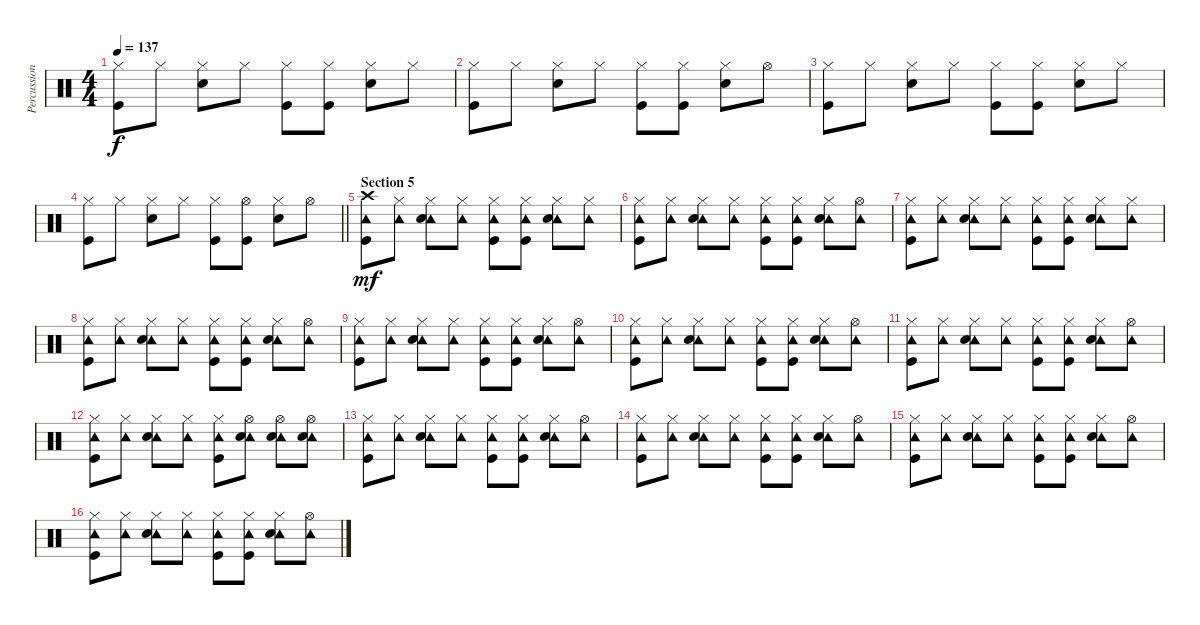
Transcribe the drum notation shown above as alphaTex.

\track ("Percussion" "Percussion") {instrument percussion}
\staff {score}
\articulation defaults
\ts (4 4)
\tempo 137
\clef neutral
\ks c
("Hi-Hat (closed)" "Kick (hit)").8{dy f} "Hi-Hat (closed)".8 ("Hi-Hat (closed)" "Snare (hit) 2").8 "Hi-Hat (closed)".8 ("Hi-Hat (closed)" "Kick (hit)").8 ("Hi-Hat (closed)" "Kick (hit)").8 ("Hi-Hat (closed)" "Snare (hit) 2").8 "Hi-Hat (closed)".8 |
("Hi-Hat (closed)" "Kick (hit)").8 "Hi-Hat (closed)".8 ("Hi-Hat (closed)" "Snare (hit) 2").8 "Hi-Hat (closed)".8 ("Hi-Hat (closed)" "Kick (hit)").8 ("Hi-Hat (closed)" "Kick (hit)").8 ("Hi-Hat (closed)" "Snare (hit) 2").8 "Hi-Hat (open)".8 |
("Hi-Hat (closed)" "Kick (hit)").8 "Hi-Hat (closed)".8 ("Hi-Hat (closed)" "Snare (hit) 2").8 "Hi-Hat (closed)".8 ("Hi-Hat (closed)" "Kick (hit)").8 ("Hi-Hat (closed)" "Kick (hit)").8 ("Hi-Hat (closed)" "Snare (hit) 2").8 "Hi-Hat (closed)".8 |
\barLineRight lightlight
("Hi-Hat (closed)" "Kick (hit)").8 "Hi-Hat (closed)".8 ("Hi-Hat (closed)" "Snare (hit) 2").8 "Hi-Hat (closed)".8 ("Hi-Hat (closed)" "Kick (hit)").8 ("Hi-Hat (open)" "Kick (hit)").8 ("Hi-Hat (closed)" "Snare (hit) 2").8 "Hi-Hat (open)".8 |
\section ("" "Section 5")
("Tambourine (hit)" "Crash high (hit)" "Kick (hit)").8{dy mf} ("Tambourine (hit)" "Hi-Hat (closed)").8 ("Tambourine (hit)" "Hi-Hat (closed)" "Snare (hit) 2").8 ("Tambourine (hit)" "Hi-Hat (closed)").8 ("Tambourine (hit)" "Hi-Hat (closed)" "Kick (hit)").8 ("Tambourine (hit)" "Hi-Hat (closed)" "Kick (hit)").8 ("Tambourine (hit)" "Hi-Hat (closed)" "Snare (hit) 2").8 ("Tambourine (hit)" "Hi-Hat (closed)").8 |
("Tambourine (hit)" "Hi-Hat (closed)" "Kick (hit)").8 ("Tambourine (hit)" "Hi-Hat (closed)").8 ("Tambourine (hit)" "Hi-Hat (closed)" "Snare (hit) 2").8 ("Tambourine (hit)" "Hi-Hat (closed)").8 ("Tambourine (hit)" "Hi-Hat (closed)" "Kick (hit)").8 ("Tambourine (hit)" "Hi-Hat (closed)" "Kick (hit)").8 ("Tambourine (hit)" "Hi-Hat (closed)" "Snare (hit) 2").8 ("Tambourine (hit)" "Hi-Hat (open)").8 |
("Tambourine (hit)" "Hi-Hat (closed)" "Kick (hit)").8 ("Tambourine (hit)" "Hi-Hat (closed)").8 ("Tambourine (hit)" "Hi-Hat (closed)" "Snare (hit) 2").8 ("Tambourine (hit)" "Hi-Hat (closed)").8 ("Tambourine (hit)" "Hi-Hat (closed)" "Kick (hit)").8 ("Tambourine (hit)" "Hi-Hat (closed)" "Kick (hit)").8 ("Tambourine (hit)" "Hi-Hat (closed)" "Snare (hit) 2").8 ("Tambourine (hit)" "Hi-Hat (closed)").8 |
("Tambourine (hit)" "Hi-Hat (closed)" "Kick (hit)").8 ("Tambourine (hit)" "Hi-Hat (closed)").8 ("Tambourine (hit)" "Hi-Hat (closed)" "Snare (hit) 2").8 ("Tambourine (hit)" "Hi-Hat (closed)").8 ("Tambourine (hit)" "Hi-Hat (closed)" "Kick (hit)").8 ("Tambourine (hit)" "Hi-Hat (closed)" "Kick (hit)").8 ("Tambourine (hit)" "Hi-Hat (closed)" "Snare (hit) 2").8 ("Tambourine (hit)" "Hi-Hat (open)").8 |
("Tambourine (hit)" "Hi-Hat (closed)" "Kick (hit)").8 ("Tambourine (hit)" "Hi-Hat (closed)").8 ("Tambourine (hit)" "Hi-Hat (closed)" "Snare (hit) 2").8 ("Tambourine (hit)" "Hi-Hat (closed)").8 ("Tambourine (hit)" "Hi-Hat (closed)" "Kick (hit)").8 ("Tambourine (hit)" "Hi-Hat (closed)" "Kick (hit)").8 ("Tambourine (hit)" "Hi-Hat (closed)" "Snare (hit) 2").8 ("Tambourine (hit)" "Hi-Hat (open)").8 |
("Tambourine (hit)" "Hi-Hat (closed)" "Kick (hit)").8 ("Tambourine (hit)" "Hi-Hat (closed)").8 ("Tambourine (hit)" "Hi-Hat (closed)" "Snare (hit) 2").8 ("Tambourine (hit)" "Hi-Hat (closed)").8 ("Tambourine (hit)" "Hi-Hat (closed)" "Kick (hit)").8 ("Tambourine (hit)" "Hi-Hat (closed)" "Kick (hit)").8 ("Tambourine (hit)" "Hi-Hat (closed)" "Snare (hit) 2").8 ("Tambourine (hit)" "Hi-Hat (open)").8 |
("Tambourine (hit)" "Hi-Hat (closed)" "Kick (hit)").8 ("Tambourine (hit)" "Hi-Hat (closed)").8 ("Tambourine (hit)" "Hi-Hat (closed)" "Snare (hit) 2").8 ("Tambourine (hit)" "Hi-Hat (closed)").8 ("Tambourine (hit)" "Hi-Hat (closed)" "Kick (hit)").8 ("Tambourine (hit)" "Hi-Hat (closed)" "Kick (hit)").8 ("Tambourine (hit)" "Hi-Hat (closed)" "Snare (hit) 2").8 ("Tambourine (hit)" "Hi-Hat (open)").8 |
("Tambourine (hit)" "Hi-Hat (closed)" "Kick (hit)").8 ("Tambourine (hit)" "Hi-Hat (closed)").8 ("Tambourine (hit)" "Hi-Hat (closed)" "Snare (hit) 2").8 ("Tambourine (hit)" "Hi-Hat (closed)").8 ("Tambourine (hit)" "Hi-Hat (closed)" "Kick (hit)").8 ("Tambourine (hit)" "Hi-Hat (open)" "Snare (hit) 2").8 ("Tambourine (hit)" "Hi-Hat (open)" "Snare (hit) 2").8 ("Tambourine (hit)" "Hi-Hat (open)" "Snare (hit) 2").8 |
("Tambourine (hit)" "Hi-Hat (closed)" "Kick (hit)").8 ("Tambourine (hit)" "Hi-Hat (closed)").8 ("Tambourine (hit)" "Hi-Hat (closed)" "Snare (hit) 2").8 ("Tambourine (hit)" "Hi-Hat (closed)").8 ("Tambourine (hit)" "Hi-Hat (closed)" "Kick (hit)").8 ("Tambourine (hit)" "Hi-Hat (closed)" "Kick (hit)").8 ("Tambourine (hit)" "Hi-Hat (closed)" "Snare (hit) 2").8 ("Tambourine (hit)" "Hi-Hat (open)").8 |
("Tambourine (hit)" "Hi-Hat (closed)" "Kick (hit)").8 ("Tambourine (hit)" "Hi-Hat (closed)").8 ("Tambourine (hit)" "Hi-Hat (closed)" "Snare (hit) 2").8 ("Tambourine (hit)" "Hi-Hat (closed)").8 ("Tambourine (hit)" "Hi-Hat (closed)" "Kick (hit)").8 ("Tambourine (hit)" "Hi-Hat (closed)" "Kick (hit)").8 ("Tambourine (hit)" "Hi-Hat (closed)" "Snare (hit) 2").8 ("Tambourine (hit)" "Hi-Hat (open)").8 |
("Tambourine (hit)" "Hi-Hat (closed)" "Kick (hit)").8 ("Tambourine (hit)" "Hi-Hat (closed)").8 ("Tambourine (hit)" "Hi-Hat (closed)" "Snare (hit) 2").8 ("Tambourine (hit)" "Hi-Hat (closed)").8 ("Tambourine (hit)" "Hi-Hat (closed)" "Kick (hit)").8 ("Tambourine (hit)" "Hi-Hat (closed)" "Kick (hit)").8 ("Tambourine (hit)" "Hi-Hat (closed)" "Snare (hit) 2").8 ("Tambourine (hit)" "Hi-Hat (open)").8 |
("Tambourine (hit)" "Hi-Hat (closed)" "Kick (hit)").8 ("Tambourine (hit)" "Hi-Hat (closed)").8 ("Tambourine (hit)" "Hi-Hat (closed)" "Snare (hit) 2").8 ("Tambourine (hit)" "Hi-Hat (closed)").8 ("Tambourine (hit)" "Hi-Hat (closed)" "Kick (hit)").8 ("Tambourine (hit)" "Hi-Hat (closed)" "Kick (hit)").8 ("Tambourine (hit)" "Hi-Hat (closed)" "Snare (hit) 2").8 ("Tambourine (hit)" "Hi-Hat (open)").8
